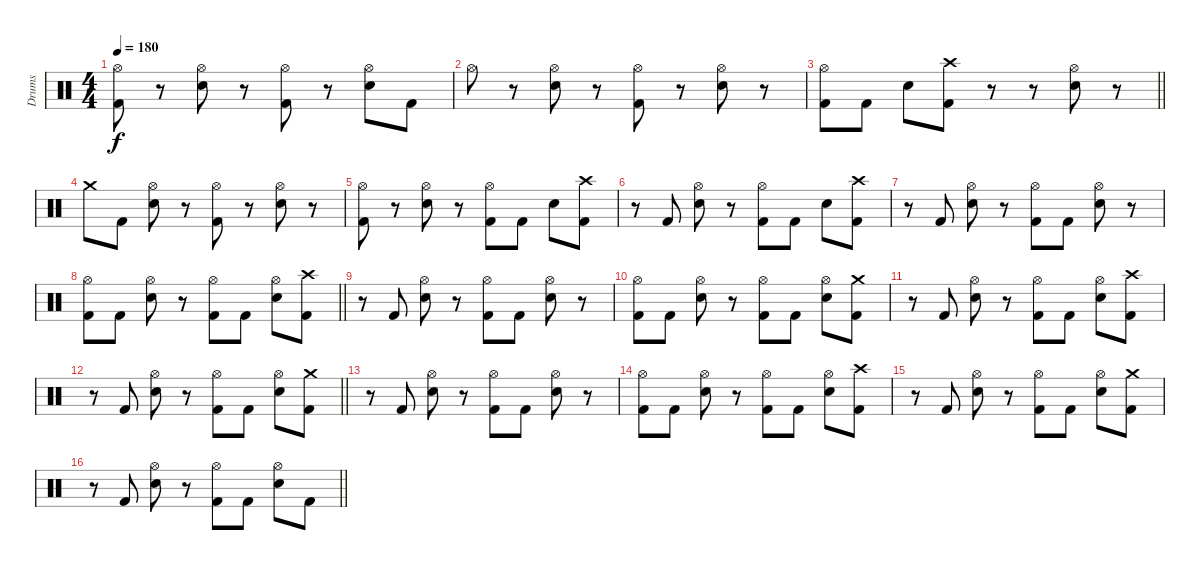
\track ("Drums" "Drums") {instrument percussion}
\staff {score}
\articulation defaults
\ts (4 4)
\tempo 180
\clef neutral
\ks c
("Hi-Hat (open)" "Kick (hit) 2").8{dy f} r.8 ("Hi-Hat (open)" "Electric Snare (hit)").8 r.8 ("Hi-Hat (open)" "Kick (hit) 2").8 r.8 ("Hi-Hat (open)" "Electric Snare (hit)").8 "Kick (hit) 2".8 |
"Hi-Hat (open)".8 r.8 ("Hi-Hat (open)" "Electric Snare (hit)").8 r.8 ("Hi-Hat (open)" "Kick (hit) 2").8 r.8 ("Hi-Hat (open)" "Electric Snare (hit)").8 r.8 |
\barLineRight lightlight
("Hi-Hat (open)" "Kick (hit) 2").8 "Kick (hit) 2".8 "Electric Snare (hit)".8 ("Crash high (hit)" "Kick (hit) 2").8 r.8 r.8 ("Hi-Hat (open)" "Electric Snare (hit)").8 r.8 |
"Crash medium (hit)".8 "Kick (hit) 2".8 ("Hi-Hat (open)" "Electric Snare (hit)").8 r.8 ("Hi-Hat (open)" "Kick (hit) 2").8 r.8 ("Hi-Hat (open)" "Electric Snare (hit)").8 r.8 |
("Hi-Hat (open)" "Kick (hit) 2").8 r.8 ("Hi-Hat (open)" "Electric Snare (hit)").8 r.8 ("Hi-Hat (open)" "Kick (hit) 2").8 "Kick (hit) 2".8 "Electric Snare (hit)".8 ("Crash high (hit)" "Kick (hit) 2").8 |
r.8 "Kick (hit) 2".8 ("Hi-Hat (open)" "Electric Snare (hit)").8 r.8 ("Hi-Hat (open)" "Kick (hit) 2").8 "Kick (hit) 2".8 "Electric Snare (hit)".8 ("Crash high (hit)" "Kick (hit) 2").8 |
r.8 "Kick (hit) 2".8 ("Hi-Hat (open)" "Electric Snare (hit)").8 r.8 ("Hi-Hat (open)" "Kick (hit) 2").8 "Kick (hit) 2".8 ("Hi-Hat (open)" "Electric Snare (hit)").8 r.8 |
\barLineRight lightlight
("Hi-Hat (open)" "Kick (hit) 2").8 "Kick (hit) 2".8 ("Hi-Hat (open)" "Electric Snare (hit)").8 r.8 ("Hi-Hat (open)" "Kick (hit) 2").8 "Kick (hit) 2".8 ("Hi-Hat (open)" "Electric Snare (hit)").8 ("Crash high (hit)" "Kick (hit) 2").8 |
r.8 "Kick (hit) 2".8 ("Hi-Hat (open)" "Electric Snare (hit)").8 r.8 ("Hi-Hat (open)" "Kick (hit) 2").8 "Kick (hit) 2".8 ("Hi-Hat (open)" "Electric Snare (hit)").8 r.8 |
("Hi-Hat (open)" "Kick (hit) 2").8 "Kick (hit) 2".8 ("Hi-Hat (open)" "Electric Snare (hit)").8 r.8 ("Hi-Hat (open)" "Kick (hit) 2").8 "Kick (hit) 2".8 ("Hi-Hat (open)" "Electric Snare (hit)").8 ("Crash medium (hit)" "Kick (hit) 2").8 |
r.8 "Kick (hit) 2".8 ("Hi-Hat (open)" "Electric Snare (hit)").8 r.8 ("Hi-Hat (open)" "Kick (hit) 2").8 "Kick (hit) 2".8 ("Hi-Hat (open)" "Electric Snare (hit)").8 ("Crash high (hit)" "Kick (hit) 2").8 |
\barLineRight lightlight
r.8 "Kick (hit) 2".8 ("Hi-Hat (open)" "Electric Snare (hit)").8 r.8 ("Hi-Hat (open)" "Kick (hit) 2").8 "Kick (hit) 2".8 ("Hi-Hat (open)" "Electric Snare (hit)").8 ("Crash medium (hit)" "Kick (hit) 2").8 |
r.8 "Kick (hit) 2".8 ("Hi-Hat (open)" "Electric Snare (hit)").8 r.8 ("Hi-Hat (open)" "Kick (hit) 2").8 "Kick (hit) 2".8 ("Hi-Hat (open)" "Electric Snare (hit)").8 r.8 |
("Hi-Hat (open)" "Kick (hit) 2").8 "Kick (hit) 2".8 ("Hi-Hat (open)" "Electric Snare (hit)").8 r.8 ("Hi-Hat (open)" "Kick (hit) 2").8 "Kick (hit) 2".8 ("Hi-Hat (open)" "Electric Snare (hit)").8 ("Crash high (hit)" "Kick (hit) 2").8 |
r.8 "Kick (hit) 2".8 ("Hi-Hat (open)" "Electric Snare (hit)").8 r.8 ("Hi-Hat (open)" "Kick (hit) 2").8 "Kick (hit) 2".8 ("Hi-Hat (open)" "Electric Snare (hit)").8 ("Crash medium (hit)" "Kick (hit) 2").8 |
\barLineRight lightlight
r.8 "Kick (hit) 2".8 ("Hi-Hat (open)" "Electric Snare (hit)").8 r.8 ("Hi-Hat (open)" "Kick (hit) 2").8 "Kick (hit) 2".8 ("Hi-Hat (open)" "Electric Snare (hit)").8 "Kick (hit) 2".8
